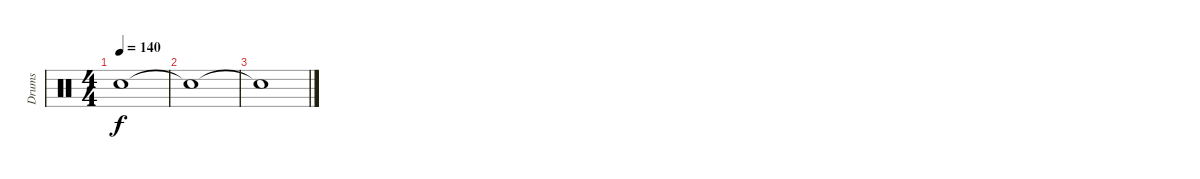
\track ("Drums" "Drums") {instrument percussion}
\staff {score}
\articulation defaults
\ts (4 4)
\tempo 140
\clef neutral
\ks c "Snare (hit)"{t}.1{dy f}
|
"Snare (hit)"{t}.1 |
"Snare (hit)"{t}.1
